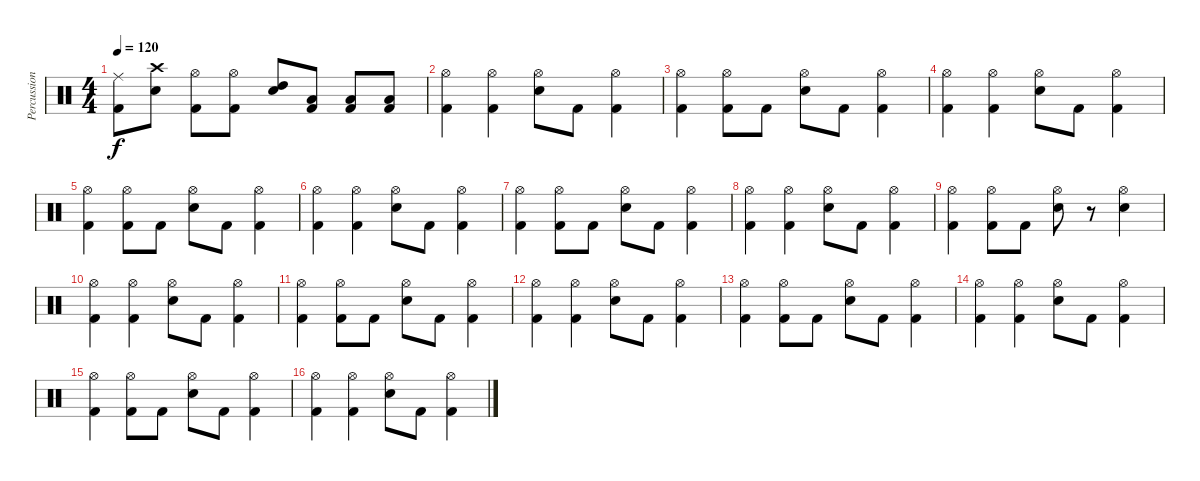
\track ("Percussion" "Percussion") {instrument percussion}
\staff {score}
\articulation defaults
\ts (4 4)
\tempo 120
\clef neutral
\ks c
("Ride (middle)" "Kick (hit) 2").8{dy f} ("Crash high (hit)" "Electric Snare (hit)").8 ("Hi-Hat (open)" "Kick (hit) 2").8 ("Hi-Hat (open)" "Kick (hit) 2").8 ("High Tom (hit)" "Electric Snare (hit)").8 ("Low Tom (hit)" "Kick (hit) 2").8 ("Low Tom (hit)" "Kick (hit) 2").8 ("Low Tom (hit)" "Kick (hit) 2").8 |
("Hi-Hat (open)" "Kick (hit) 2").4 ("Hi-Hat (open)" "Kick (hit) 2").4 ("Hi-Hat (open)" "Electric Snare (hit)").8 "Kick (hit) 2".8 ("Hi-Hat (open)" "Kick (hit) 2").4 |
("Hi-Hat (open)" "Kick (hit) 2").4 ("Hi-Hat (open)" "Kick (hit) 2").8 "Kick (hit) 2".8 ("Hi-Hat (open)" "Electric Snare (hit)").8 "Kick (hit) 2".8 ("Hi-Hat (open)" "Kick (hit) 2").4 |
("Hi-Hat (open)" "Kick (hit) 2").4 ("Hi-Hat (open)" "Kick (hit) 2").4 ("Hi-Hat (open)" "Electric Snare (hit)").8 "Kick (hit) 2".8 ("Hi-Hat (open)" "Kick (hit) 2").4 |
("Hi-Hat (open)" "Kick (hit) 2").4 ("Hi-Hat (open)" "Kick (hit) 2").8 "Kick (hit) 2".8 ("Hi-Hat (open)" "Electric Snare (hit)").8 "Kick (hit) 2".8 ("Hi-Hat (open)" "Kick (hit) 2").4 |
("Hi-Hat (open)" "Kick (hit) 2").4 ("Hi-Hat (open)" "Kick (hit) 2").4 ("Hi-Hat (open)" "Electric Snare (hit)").8 "Kick (hit) 2".8 ("Hi-Hat (open)" "Kick (hit) 2").4 |
("Hi-Hat (open)" "Kick (hit) 2").4 ("Hi-Hat (open)" "Kick (hit) 2").8 "Kick (hit) 2".8 ("Hi-Hat (open)" "Electric Snare (hit)").8 "Kick (hit) 2".8 ("Hi-Hat (open)" "Kick (hit) 2").4 |
("Hi-Hat (open)" "Kick (hit) 2").4 ("Hi-Hat (open)" "Kick (hit) 2").4 ("Hi-Hat (open)" "Electric Snare (hit)").8 "Kick (hit) 2".8 ("Hi-Hat (open)" "Kick (hit) 2").4 |
("Hi-Hat (open)" "Kick (hit) 2").4 ("Hi-Hat (open)" "Kick (hit) 2").8 "Kick (hit) 2".8 ("Hi-Hat (open)" "Electric Snare (hit)").8 r.8 ("Hi-Hat (open)" "Electric Snare (hit)").4 |
("Hi-Hat (open)" "Kick (hit) 2").4 ("Hi-Hat (open)" "Kick (hit) 2").4 ("Hi-Hat (open)" "Electric Snare (hit)").8 "Kick (hit) 2".8 ("Hi-Hat (open)" "Kick (hit) 2").4 |
("Hi-Hat (open)" "Kick (hit) 2").4 ("Hi-Hat (open)" "Kick (hit) 2").8 "Kick (hit) 2".8 ("Hi-Hat (open)" "Electric Snare (hit)").8 "Kick (hit) 2".8 ("Hi-Hat (open)" "Kick (hit) 2").4 |
("Hi-Hat (open)" "Kick (hit) 2").4 ("Hi-Hat (open)" "Kick (hit) 2").4 ("Hi-Hat (open)" "Electric Snare (hit)").8 "Kick (hit) 2".8 ("Hi-Hat (open)" "Kick (hit) 2").4 |
("Hi-Hat (open)" "Kick (hit) 2").4 ("Hi-Hat (open)" "Kick (hit) 2").8 "Kick (hit) 2".8 ("Hi-Hat (open)" "Electric Snare (hit)").8 "Kick (hit) 2".8 ("Hi-Hat (open)" "Kick (hit) 2").4 |
("Hi-Hat (open)" "Kick (hit) 2").4 ("Hi-Hat (open)" "Kick (hit) 2").4 ("Hi-Hat (open)" "Electric Snare (hit)").8 "Kick (hit) 2".8 ("Hi-Hat (open)" "Kick (hit) 2").4 |
("Hi-Hat (open)" "Kick (hit) 2").4 ("Hi-Hat (open)" "Kick (hit) 2").8 "Kick (hit) 2".8 ("Hi-Hat (open)" "Electric Snare (hit)").8 "Kick (hit) 2".8 ("Hi-Hat (open)" "Kick (hit) 2").4 |
("Hi-Hat (open)" "Kick (hit) 2").4 ("Hi-Hat (open)" "Kick (hit) 2").4 ("Hi-Hat (open)" "Electric Snare (hit)").8 "Kick (hit) 2".8 ("Hi-Hat (open)" "Kick (hit) 2").4
